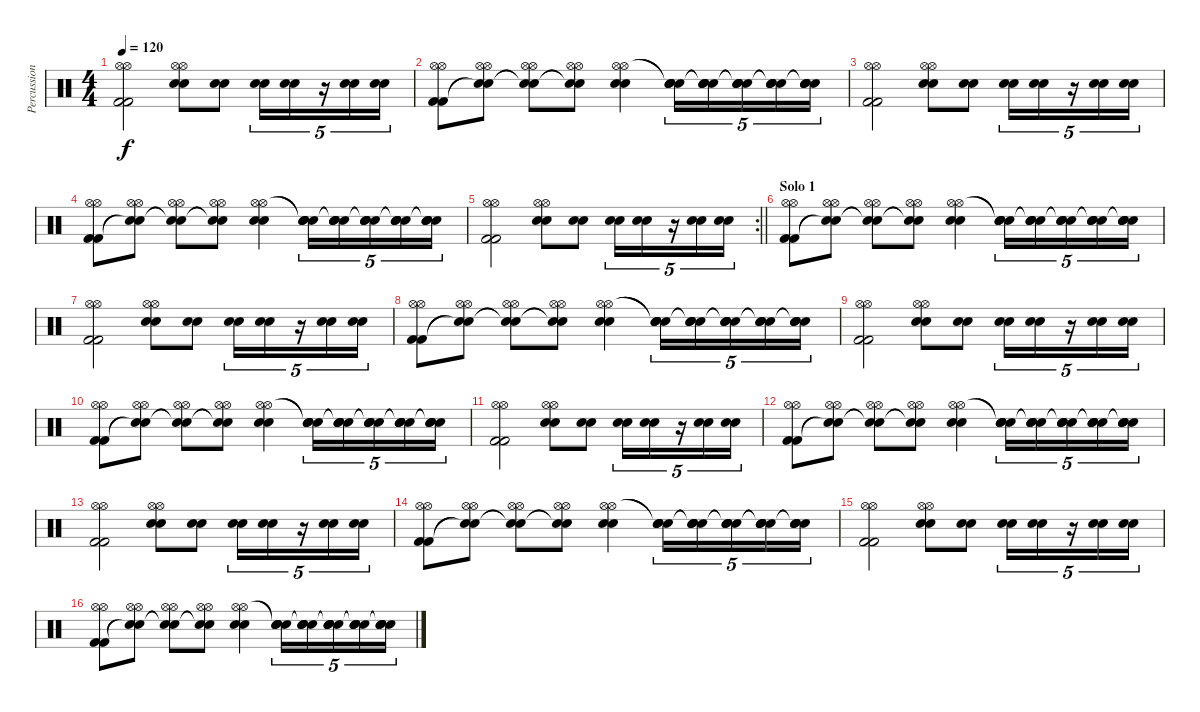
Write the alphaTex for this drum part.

\track ("Percussion" "Percussion") {instrument percussion}
\staff {score}
\articulation defaults
\ts (4 4)
\tempo 120
\clef neutral
\ks c
("Hi-Hat (open)" "Hi-Hat (open)" "Kick (hit) 2" "Kick (hit) 2").2{dy f} ("Hi-Hat (open)" "Hi-Hat (open)" "Electric Snare (hit)" "Electric Snare (hit)").8 ("Electric Snare (hit)" "Electric Snare (hit)").8 ("Electric Snare (hit)" "Electric Snare (hit)").16{tu (5 4)} ("Electric Snare (hit)" "Electric Snare (hit)").16{tu (5 4)} r.16{tu (5 4)} ("Electric Snare (hit)" "Electric Snare (hit)").16{tu (5 4)} ("Electric Snare (hit)" "Electric Snare (hit)").16{tu (5 4)} |
("Hi-Hat (open)" "Hi-Hat (open)" "Kick (hit) 2" "Kick (hit) 2").8 ("Hi-Hat (open)" "Hi-Hat (open)" "Snare (hit)"{t} "Snare (hit)"{t}).8 ("Hi-Hat (open)" "Hi-Hat (open)" "Snare (hit)"{t} "Snare (hit)"{t}).8 ("Hi-Hat (open)" "Hi-Hat (open)" "Snare (hit)"{t} "Snare (hit)"{t}).8 ("Hi-Hat (open)" "Hi-Hat (open)" "Electric Snare (hit)" "Electric Snare (hit)").4 ("Snare (hit)"{t} "Snare (hit)"{t} "Electric Snare (hit)" "Electric Snare (hit)").16{tu (5 4)} ("Snare (hit)"{t} "Snare (hit)"{t} "Electric Snare (hit)" "Electric Snare (hit)").16{tu (5 4)} ("Snare (hit)"{t} "Snare (hit)"{t} "Electric Snare (hit)" "Electric Snare (hit)").16{tu (5 4)} ("Snare (hit)"{t} "Snare (hit)"{t} "Electric Snare (hit)" "Electric Snare (hit)").16{tu (5 4)} ("Snare (hit)"{t} "Snare (hit)"{t} "Electric Snare (hit)" "Electric Snare (hit)").16{tu (5 4)} |
("Hi-Hat (open)" "Hi-Hat (open)" "Kick (hit) 2" "Kick (hit) 2").2 ("Hi-Hat (open)" "Hi-Hat (open)" "Electric Snare (hit)" "Electric Snare (hit)").8 ("Electric Snare (hit)" "Electric Snare (hit)").8 ("Electric Snare (hit)" "Electric Snare (hit)").16{tu (5 4)} ("Electric Snare (hit)" "Electric Snare (hit)").16{tu (5 4)} r.16{tu (5 4)} ("Electric Snare (hit)" "Electric Snare (hit)").16{tu (5 4)} ("Electric Snare (hit)" "Electric Snare (hit)").16{tu (5 4)} |
("Hi-Hat (open)" "Hi-Hat (open)" "Kick (hit) 2" "Kick (hit) 2").8 ("Hi-Hat (open)" "Hi-Hat (open)" "Snare (hit)"{t} "Snare (hit)"{t}).8 ("Hi-Hat (open)" "Hi-Hat (open)" "Snare (hit)"{t} "Snare (hit)"{t}).8 ("Hi-Hat (open)" "Hi-Hat (open)" "Snare (hit)"{t} "Snare (hit)"{t}).8 ("Hi-Hat (open)" "Hi-Hat (open)" "Electric Snare (hit)" "Electric Snare (hit)").4 ("Snare (hit)"{t} "Snare (hit)"{t} "Electric Snare (hit)" "Electric Snare (hit)").16{tu (5 4)} ("Snare (hit)"{t} "Snare (hit)"{t} "Electric Snare (hit)" "Electric Snare (hit)").16{tu (5 4)} ("Snare (hit)"{t} "Snare (hit)"{t} "Electric Snare (hit)" "Electric Snare (hit)").16{tu (5 4)} ("Snare (hit)"{t} "Snare (hit)"{t} "Electric Snare (hit)" "Electric Snare (hit)").16{tu (5 4)} ("Snare (hit)"{t} "Snare (hit)"{t} "Electric Snare (hit)" "Electric Snare (hit)").16{tu (5 4)} |
\rc 2
\barLineRight lightlight
("Hi-Hat (open)" "Hi-Hat (open)" "Kick (hit) 2" "Kick (hit) 2").2 ("Hi-Hat (open)" "Hi-Hat (open)" "Electric Snare (hit)" "Electric Snare (hit)").8 ("Electric Snare (hit)" "Electric Snare (hit)").8 ("Electric Snare (hit)" "Electric Snare (hit)").16{tu (5 4)} ("Electric Snare (hit)" "Electric Snare (hit)").16{tu (5 4)} r.16{tu (5 4)} ("Electric Snare (hit)" "Electric Snare (hit)").16{tu (5 4)} ("Electric Snare (hit)" "Electric Snare (hit)").16{tu (5 4)} |
\section ("" "Solo 1")
("Hi-Hat (open)" "Hi-Hat (open)" "Kick (hit) 2" "Kick (hit) 2").8 ("Hi-Hat (open)" "Hi-Hat (open)" "Snare (hit)"{t} "Snare (hit)"{t}).8 ("Hi-Hat (open)" "Hi-Hat (open)" "Snare (hit)"{t} "Snare (hit)"{t}).8 ("Hi-Hat (open)" "Hi-Hat (open)" "Snare (hit)"{t} "Snare (hit)"{t}).8 ("Hi-Hat (open)" "Hi-Hat (open)" "Electric Snare (hit)" "Electric Snare (hit)").4 ("Snare (hit)"{t} "Snare (hit)"{t} "Electric Snare (hit)" "Electric Snare (hit)").16{tu (5 4)} ("Snare (hit)"{t} "Snare (hit)"{t} "Electric Snare (hit)" "Electric Snare (hit)").16{tu (5 4)} ("Snare (hit)"{t} "Snare (hit)"{t} "Electric Snare (hit)" "Electric Snare (hit)").16{tu (5 4)} ("Snare (hit)"{t} "Snare (hit)"{t} "Electric Snare (hit)" "Electric Snare (hit)").16{tu (5 4)} ("Snare (hit)"{t} "Snare (hit)"{t} "Electric Snare (hit)" "Electric Snare (hit)").16{tu (5 4)} |
("Hi-Hat (open)" "Hi-Hat (open)" "Kick (hit) 2" "Kick (hit) 2").2 ("Hi-Hat (open)" "Hi-Hat (open)" "Electric Snare (hit)" "Electric Snare (hit)").8 ("Electric Snare (hit)" "Electric Snare (hit)").8 ("Electric Snare (hit)" "Electric Snare (hit)").16{tu (5 4)} ("Electric Snare (hit)" "Electric Snare (hit)").16{tu (5 4)} r.16{tu (5 4)} ("Electric Snare (hit)" "Electric Snare (hit)").16{tu (5 4)} ("Electric Snare (hit)" "Electric Snare (hit)").16{tu (5 4)} |
("Hi-Hat (open)" "Hi-Hat (open)" "Kick (hit) 2" "Kick (hit) 2").8 ("Hi-Hat (open)" "Hi-Hat (open)" "Snare (hit)"{t} "Snare (hit)"{t}).8 ("Hi-Hat (open)" "Hi-Hat (open)" "Snare (hit)"{t} "Snare (hit)"{t}).8 ("Hi-Hat (open)" "Hi-Hat (open)" "Snare (hit)"{t} "Snare (hit)"{t}).8 ("Hi-Hat (open)" "Hi-Hat (open)" "Electric Snare (hit)" "Electric Snare (hit)").4 ("Snare (hit)"{t} "Snare (hit)"{t} "Electric Snare (hit)" "Electric Snare (hit)").16{tu (5 4)} ("Snare (hit)"{t} "Snare (hit)"{t} "Electric Snare (hit)" "Electric Snare (hit)").16{tu (5 4)} ("Snare (hit)"{t} "Snare (hit)"{t} "Electric Snare (hit)" "Electric Snare (hit)").16{tu (5 4)} ("Snare (hit)"{t} "Snare (hit)"{t} "Electric Snare (hit)" "Electric Snare (hit)").16{tu (5 4)} ("Snare (hit)"{t} "Snare (hit)"{t} "Electric Snare (hit)" "Electric Snare (hit)").16{tu (5 4)} |
("Hi-Hat (open)" "Hi-Hat (open)" "Kick (hit) 2" "Kick (hit) 2").2 ("Hi-Hat (open)" "Hi-Hat (open)" "Electric Snare (hit)" "Electric Snare (hit)").8 ("Electric Snare (hit)" "Electric Snare (hit)").8 ("Electric Snare (hit)" "Electric Snare (hit)").16{tu (5 4)} ("Electric Snare (hit)" "Electric Snare (hit)").16{tu (5 4)} r.16{tu (5 4)} ("Electric Snare (hit)" "Electric Snare (hit)").16{tu (5 4)} ("Electric Snare (hit)" "Electric Snare (hit)").16{tu (5 4)} |
("Hi-Hat (open)" "Hi-Hat (open)" "Kick (hit) 2" "Kick (hit) 2").8 ("Hi-Hat (open)" "Hi-Hat (open)" "Snare (hit)"{t} "Snare (hit)"{t}).8 ("Hi-Hat (open)" "Hi-Hat (open)" "Snare (hit)"{t} "Snare (hit)"{t}).8 ("Hi-Hat (open)" "Hi-Hat (open)" "Snare (hit)"{t} "Snare (hit)"{t}).8 ("Hi-Hat (open)" "Hi-Hat (open)" "Electric Snare (hit)" "Electric Snare (hit)").4 ("Snare (hit)"{t} "Snare (hit)"{t} "Electric Snare (hit)" "Electric Snare (hit)").16{tu (5 4)} ("Snare (hit)"{t} "Snare (hit)"{t} "Electric Snare (hit)" "Electric Snare (hit)").16{tu (5 4)} ("Snare (hit)"{t} "Snare (hit)"{t} "Electric Snare (hit)" "Electric Snare (hit)").16{tu (5 4)} ("Snare (hit)"{t} "Snare (hit)"{t} "Electric Snare (hit)" "Electric Snare (hit)").16{tu (5 4)} ("Snare (hit)"{t} "Snare (hit)"{t} "Electric Snare (hit)" "Electric Snare (hit)").16{tu (5 4)} |
("Hi-Hat (open)" "Hi-Hat (open)" "Kick (hit) 2" "Kick (hit) 2").2 ("Hi-Hat (open)" "Hi-Hat (open)" "Electric Snare (hit)" "Electric Snare (hit)").8 ("Electric Snare (hit)" "Electric Snare (hit)").8 ("Electric Snare (hit)" "Electric Snare (hit)").16{tu (5 4)} ("Electric Snare (hit)" "Electric Snare (hit)").16{tu (5 4)} r.16{tu (5 4)} ("Electric Snare (hit)" "Electric Snare (hit)").16{tu (5 4)} ("Electric Snare (hit)" "Electric Snare (hit)").16{tu (5 4)} |
("Hi-Hat (open)" "Hi-Hat (open)" "Kick (hit) 2" "Kick (hit) 2").8 ("Hi-Hat (open)" "Hi-Hat (open)" "Snare (hit)"{t} "Snare (hit)"{t}).8 ("Hi-Hat (open)" "Hi-Hat (open)" "Snare (hit)"{t} "Snare (hit)"{t}).8 ("Hi-Hat (open)" "Hi-Hat (open)" "Snare (hit)"{t} "Snare (hit)"{t}).8 ("Hi-Hat (open)" "Hi-Hat (open)" "Electric Snare (hit)" "Electric Snare (hit)").4 ("Snare (hit)"{t} "Snare (hit)"{t} "Electric Snare (hit)" "Electric Snare (hit)").16{tu (5 4)} ("Snare (hit)"{t} "Snare (hit)"{t} "Electric Snare (hit)" "Electric Snare (hit)").16{tu (5 4)} ("Snare (hit)"{t} "Snare (hit)"{t} "Electric Snare (hit)" "Electric Snare (hit)").16{tu (5 4)} ("Snare (hit)"{t} "Snare (hit)"{t} "Electric Snare (hit)" "Electric Snare (hit)").16{tu (5 4)} ("Snare (hit)"{t} "Snare (hit)"{t} "Electric Snare (hit)" "Electric Snare (hit)").16{tu (5 4)} |
("Hi-Hat (open)" "Hi-Hat (open)" "Kick (hit) 2" "Kick (hit) 2").2 ("Hi-Hat (open)" "Hi-Hat (open)" "Electric Snare (hit)" "Electric Snare (hit)").8 ("Electric Snare (hit)" "Electric Snare (hit)").8 ("Electric Snare (hit)" "Electric Snare (hit)").16{tu (5 4)} ("Electric Snare (hit)" "Electric Snare (hit)").16{tu (5 4)} r.16{tu (5 4)} ("Electric Snare (hit)" "Electric Snare (hit)").16{tu (5 4)} ("Electric Snare (hit)" "Electric Snare (hit)").16{tu (5 4)} |
("Hi-Hat (open)" "Hi-Hat (open)" "Kick (hit) 2" "Kick (hit) 2").8 ("Hi-Hat (open)" "Hi-Hat (open)" "Snare (hit)"{t} "Snare (hit)"{t}).8 ("Hi-Hat (open)" "Hi-Hat (open)" "Snare (hit)"{t} "Snare (hit)"{t}).8 ("Hi-Hat (open)" "Hi-Hat (open)" "Snare (hit)"{t} "Snare (hit)"{t}).8 ("Hi-Hat (open)" "Hi-Hat (open)" "Electric Snare (hit)" "Electric Snare (hit)").4 ("Snare (hit)"{t} "Snare (hit)"{t} "Electric Snare (hit)" "Electric Snare (hit)").16{tu (5 4)} ("Snare (hit)"{t} "Snare (hit)"{t} "Electric Snare (hit)" "Electric Snare (hit)").16{tu (5 4)} ("Snare (hit)"{t} "Snare (hit)"{t} "Electric Snare (hit)" "Electric Snare (hit)").16{tu (5 4)} ("Snare (hit)"{t} "Snare (hit)"{t} "Electric Snare (hit)" "Electric Snare (hit)").16{tu (5 4)} ("Snare (hit)"{t} "Snare (hit)"{t} "Electric Snare (hit)" "Electric Snare (hit)").16{tu (5 4)} |
("Hi-Hat (open)" "Hi-Hat (open)" "Kick (hit) 2" "Kick (hit) 2").2 ("Hi-Hat (open)" "Hi-Hat (open)" "Electric Snare (hit)" "Electric Snare (hit)").8 ("Electric Snare (hit)" "Electric Snare (hit)").8 ("Electric Snare (hit)" "Electric Snare (hit)").16{tu (5 4)} ("Electric Snare (hit)" "Electric Snare (hit)").16{tu (5 4)} r.16{tu (5 4)} ("Electric Snare (hit)" "Electric Snare (hit)").16{tu (5 4)} ("Electric Snare (hit)" "Electric Snare (hit)").16{tu (5 4)} |
("Hi-Hat (open)" "Hi-Hat (open)" "Kick (hit) 2" "Kick (hit) 2").8 ("Hi-Hat (open)" "Hi-Hat (open)" "Snare (hit)"{t} "Snare (hit)"{t}).8 ("Hi-Hat (open)" "Hi-Hat (open)" "Snare (hit)"{t} "Snare (hit)"{t}).8 ("Hi-Hat (open)" "Hi-Hat (open)" "Snare (hit)"{t} "Snare (hit)"{t}).8 ("Hi-Hat (open)" "Hi-Hat (open)" "Electric Snare (hit)" "Electric Snare (hit)").4 ("Snare (hit)"{t} "Snare (hit)"{t} "Electric Snare (hit)" "Electric Snare (hit)").16{tu (5 4)} ("Snare (hit)"{t} "Snare (hit)"{t} "Electric Snare (hit)" "Electric Snare (hit)").16{tu (5 4)} ("Snare (hit)"{t} "Snare (hit)"{t} "Electric Snare (hit)" "Electric Snare (hit)").16{tu (5 4)} ("Snare (hit)"{t} "Snare (hit)"{t} "Electric Snare (hit)" "Electric Snare (hit)").16{tu (5 4)} ("Snare (hit)"{t} "Snare (hit)"{t} "Electric Snare (hit)" "Electric Snare (hit)").16{tu (5 4)}
